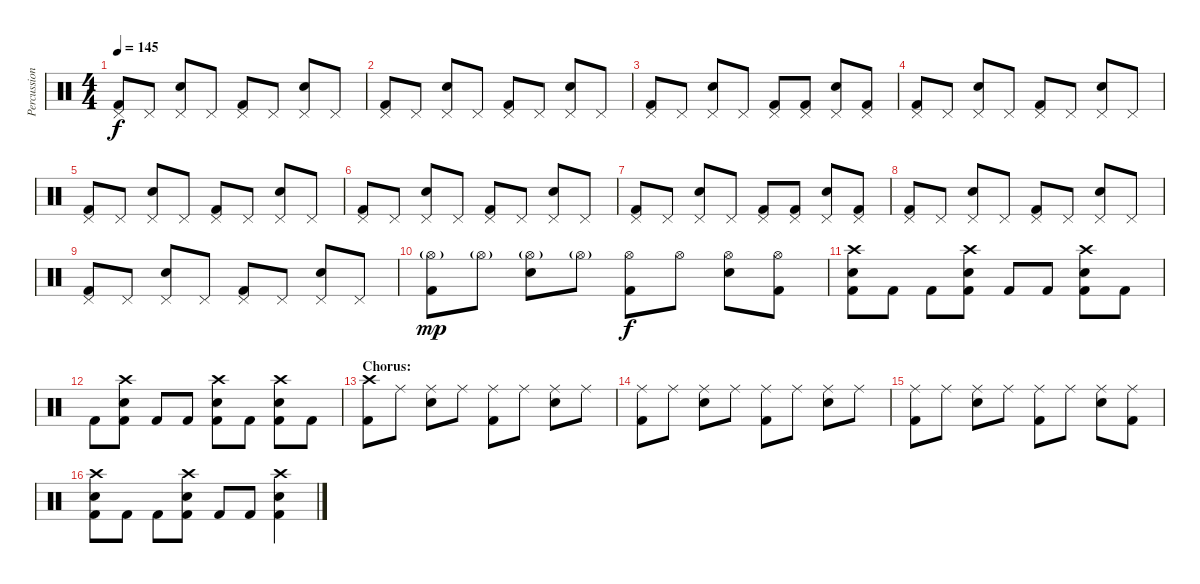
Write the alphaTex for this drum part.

\track ("Percussion" "Percussion") {instrument percussion}
\staff {score}
\articulation defaults
\ts (4 4)
\tempo 145
\clef neutral
\ks c
("Pedal Hi-Hat (hit)" "Kick (hit) 2").8{dy f} "Pedal Hi-Hat (hit)".8 ("Pedal Hi-Hat (hit)" "Electric Snare (hit)").8 "Pedal Hi-Hat (hit)".8 ("Pedal Hi-Hat (hit)" "Kick (hit) 2").8 "Pedal Hi-Hat (hit)".8 ("Pedal Hi-Hat (hit)" "Electric Snare (hit)").8 "Pedal Hi-Hat (hit)".8 |
("Pedal Hi-Hat (hit)" "Kick (hit) 2").8 "Pedal Hi-Hat (hit)".8 ("Pedal Hi-Hat (hit)" "Electric Snare (hit)").8 "Pedal Hi-Hat (hit)".8 ("Pedal Hi-Hat (hit)" "Kick (hit) 2").8 "Pedal Hi-Hat (hit)".8 ("Pedal Hi-Hat (hit)" "Electric Snare (hit)").8 "Pedal Hi-Hat (hit)".8 |
("Pedal Hi-Hat (hit)" "Kick (hit) 2").8 "Pedal Hi-Hat (hit)".8 ("Pedal Hi-Hat (hit)" "Electric Snare (hit)").8 "Pedal Hi-Hat (hit)".8 ("Pedal Hi-Hat (hit)" "Kick (hit) 2").8 ("Pedal Hi-Hat (hit)" "Kick (hit) 2").8 ("Pedal Hi-Hat (hit)" "Electric Snare (hit)").8 ("Pedal Hi-Hat (hit)" "Kick (hit) 2").8 |
("Pedal Hi-Hat (hit)" "Kick (hit) 2").8 "Pedal Hi-Hat (hit)".8 ("Pedal Hi-Hat (hit)" "Electric Snare (hit)").8 "Pedal Hi-Hat (hit)".8 ("Pedal Hi-Hat (hit)" "Kick (hit) 2").8 "Pedal Hi-Hat (hit)".8 ("Pedal Hi-Hat (hit)" "Electric Snare (hit)").8 "Pedal Hi-Hat (hit)".8 |
("Pedal Hi-Hat (hit)" "Kick (hit) 2").8 "Pedal Hi-Hat (hit)".8 ("Pedal Hi-Hat (hit)" "Electric Snare (hit)").8 "Pedal Hi-Hat (hit)".8 ("Pedal Hi-Hat (hit)" "Kick (hit) 2").8 "Pedal Hi-Hat (hit)".8 ("Pedal Hi-Hat (hit)" "Electric Snare (hit)").8 "Pedal Hi-Hat (hit)".8 |
("Pedal Hi-Hat (hit)" "Kick (hit) 2").8 "Pedal Hi-Hat (hit)".8 ("Pedal Hi-Hat (hit)" "Electric Snare (hit)").8 "Pedal Hi-Hat (hit)".8 ("Pedal Hi-Hat (hit)" "Kick (hit) 2").8 "Pedal Hi-Hat (hit)".8 ("Pedal Hi-Hat (hit)" "Electric Snare (hit)").8 "Pedal Hi-Hat (hit)".8 |
("Pedal Hi-Hat (hit)" "Kick (hit) 2").8 "Pedal Hi-Hat (hit)".8 ("Pedal Hi-Hat (hit)" "Electric Snare (hit)").8 "Pedal Hi-Hat (hit)".8 ("Pedal Hi-Hat (hit)" "Kick (hit) 2").8 ("Pedal Hi-Hat (hit)" "Kick (hit) 2").8 ("Pedal Hi-Hat (hit)" "Electric Snare (hit)").8 ("Pedal Hi-Hat (hit)" "Kick (hit) 2").8 |
("Pedal Hi-Hat (hit)" "Kick (hit) 2").8 "Pedal Hi-Hat (hit)".8 ("Pedal Hi-Hat (hit)" "Electric Snare (hit)").8 "Pedal Hi-Hat (hit)".8 ("Pedal Hi-Hat (hit)" "Kick (hit) 2").8 "Pedal Hi-Hat (hit)".8 ("Pedal Hi-Hat (hit)" "Electric Snare (hit)").8 "Pedal Hi-Hat (hit)".8 |
("Pedal Hi-Hat (hit)" "Kick (hit) 2").8 "Pedal Hi-Hat (hit)".8 ("Pedal Hi-Hat (hit)" "Electric Snare (hit)").8 "Pedal Hi-Hat (hit)".8 ("Pedal Hi-Hat (hit)" "Kick (hit) 2").8 "Pedal Hi-Hat (hit)".8 ("Pedal Hi-Hat (hit)" "Electric Snare (hit)").8 "Pedal Hi-Hat (hit)".8 |
("Hi-Hat (open)"{g} "Kick (hit) 2").8{dy mp} "Hi-Hat (open)"{g}.8 ("Hi-Hat (open)"{g} "Electric Snare (hit)").8 "Hi-Hat (open)"{g}.8 ("Hi-Hat (open)" "Kick (hit) 2").8{dy f} "Hi-Hat (open)".8 ("Hi-Hat (open)" "Electric Snare (hit)").8 ("Hi-Hat (open)" "Kick (hit) 2").8 |
("Crash high (hit)" "Electric Snare (hit)" "Kick (hit) 2").8 "Kick (hit) 2".8 "Kick (hit) 2".8 ("Crash high (hit)" "Electric Snare (hit)" "Kick (hit) 2").8 "Kick (hit) 2".8 "Kick (hit) 2".8 ("Crash high (hit)" "Electric Snare (hit)" "Kick (hit) 2").8 "Kick (hit) 2".8 |
"Kick (hit) 2".8 ("Crash high (hit)" "Electric Snare (hit)" "Kick (hit) 2").8 "Kick (hit) 2".8 "Kick (hit) 2".8 ("Crash high (hit)" "Electric Snare (hit)" "Kick (hit) 2").8 "Kick (hit) 2".8 ("Crash high (hit)" "Electric Snare (hit)" "Kick (hit) 2").8 "Kick (hit) 2".8 |
\section ("" "Chorus:")
("Crash high (hit)" "Kick (hit) 2").8 "Ride (middle)".8 ("Ride (middle)" "Electric Snare (hit)").8 "Ride (middle)".8 ("Ride (middle)" "Kick (hit) 2").8 "Ride (middle)".8 ("Ride (middle)" "Electric Snare (hit)").8 "Ride (middle)".8 |
("Ride (middle)" "Kick (hit) 2").8 "Ride (middle)".8 ("Ride (middle)" "Electric Snare (hit)").8 "Ride (middle)".8 ("Ride (middle)" "Kick (hit) 2").8 "Ride (middle)".8 ("Ride (middle)" "Electric Snare (hit)").8 "Ride (middle)".8 |
("Ride (middle)" "Kick (hit) 2").8 "Ride (middle)".8 ("Ride (middle)" "Electric Snare (hit)").8 "Ride (middle)".8 ("Ride (middle)" "Kick (hit) 2").8 "Ride (middle)".8 ("Ride (middle)" "Electric Snare (hit)").8 ("Ride (middle)" "Kick (hit) 2").8 |
("Crash high (hit)" "Electric Snare (hit)" "Kick (hit) 2").8 "Kick (hit) 2".8 "Kick (hit) 2".8 ("Crash high (hit)" "Electric Snare (hit)" "Kick (hit) 2").8 "Kick (hit) 2".8 "Kick (hit) 2".8 ("Crash high (hit)" "Electric Snare (hit)" "Kick (hit) 2").4
